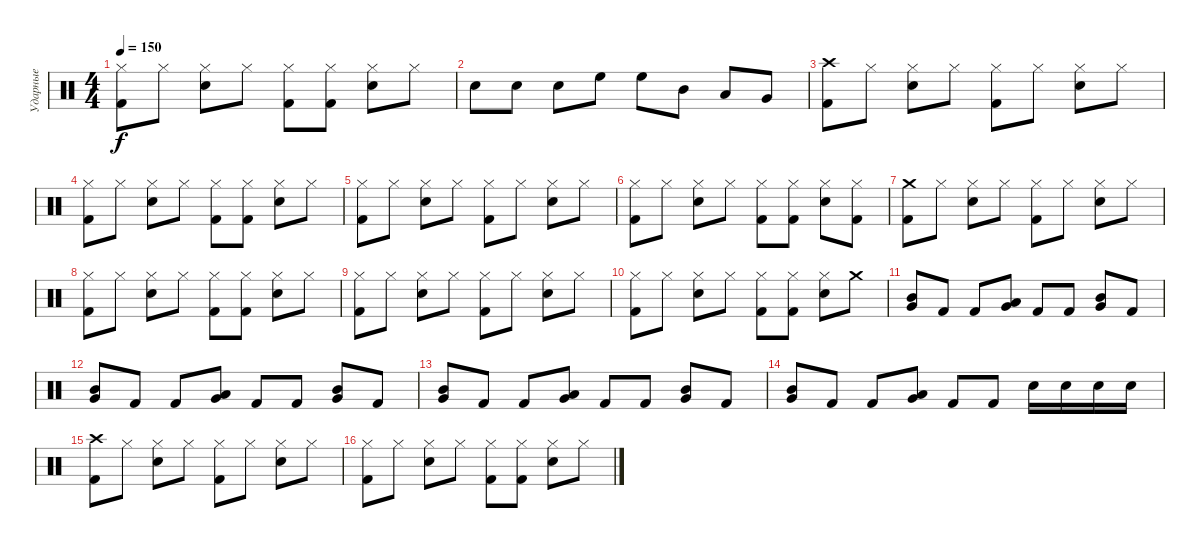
\track ("Ударные" "Ударные") {instrument percussion}
\staff {score}
\articulation defaults
\ts (4 4)
\tempo 150
\clef neutral
\ks c
("Hi-Hat (closed)" "Kick (hit) 2").8{dy f} "Hi-Hat (closed)".8 ("Hi-Hat (closed)" "Snare (hit) 2").8 "Hi-Hat (closed)".8 ("Hi-Hat (closed)" "Kick (hit) 2").8 ("Hi-Hat (closed)" "Kick (hit) 2").8 ("Hi-Hat (closed)" "Snare (hit) 2").8 "Hi-Hat (closed)".8 |
"Snare (hit) 2".8 "Snare (hit) 2".8 "Snare (hit) 2".8 "High Floor Tom (hit)".8 "High Floor Tom (hit)".8 "Mid Tom (hit)".8 "Low Tom (hit)".8 "Very Low Tom (hit)".8 |
("Crash high (hit)" "Kick (hit) 2").8 "Hi-Hat (closed)".8 ("Hi-Hat (closed)" "Snare (hit) 2").8 "Hi-Hat (closed)".8 ("Hi-Hat (closed)" "Kick (hit) 2").8 "Hi-Hat (closed)".8 ("Hi-Hat (closed)" "Snare (hit) 2").8 "Hi-Hat (closed)".8 |
("Hi-Hat (closed)" "Kick (hit) 2").8 "Hi-Hat (closed)".8 ("Hi-Hat (closed)" "Snare (hit) 2").8 "Hi-Hat (closed)".8 ("Hi-Hat (closed)" "Kick (hit) 2").8 ("Hi-Hat (closed)" "Kick (hit) 2").8 ("Hi-Hat (closed)" "Snare (hit) 2").8 "Hi-Hat (closed)".8 |
("Hi-Hat (closed)" "Kick (hit) 2").8 "Hi-Hat (closed)".8 ("Hi-Hat (closed)" "Snare (hit) 2").8 "Hi-Hat (closed)".8 ("Hi-Hat (closed)" "Kick (hit) 2").8 "Hi-Hat (closed)".8 ("Hi-Hat (closed)" "Snare (hit) 2").8 "Hi-Hat (closed)".8 |
("Hi-Hat (closed)" "Kick (hit) 2").8 "Hi-Hat (closed)".8 ("Hi-Hat (closed)" "Snare (hit) 2").8 "Hi-Hat (closed)".8 ("Hi-Hat (closed)" "Kick (hit) 2").8 ("Hi-Hat (closed)" "Kick (hit) 2").8 ("Hi-Hat (closed)" "Snare (hit) 2").8 ("Hi-Hat (closed)" "Kick (hit) 2").8 |
("Crash medium (hit)" "Kick (hit) 2").8 "Hi-Hat (closed)".8 ("Hi-Hat (closed)" "Snare (hit) 2").8 "Hi-Hat (closed)".8 ("Hi-Hat (closed)" "Kick (hit) 2").8 "Hi-Hat (closed)".8 ("Hi-Hat (closed)" "Snare (hit) 2").8 "Hi-Hat (closed)".8 |
("Hi-Hat (closed)" "Kick (hit) 2").8 "Hi-Hat (closed)".8 ("Hi-Hat (closed)" "Snare (hit) 2").8 "Hi-Hat (closed)".8 ("Hi-Hat (closed)" "Kick (hit) 2").8 ("Hi-Hat (closed)" "Kick (hit) 2").8 ("Hi-Hat (closed)" "Snare (hit) 2").8 "Hi-Hat (closed)".8 |
("Hi-Hat (closed)" "Kick (hit) 2").8 "Hi-Hat (closed)".8 ("Hi-Hat (closed)" "Snare (hit) 2").8 "Hi-Hat (closed)".8 ("Hi-Hat (closed)" "Kick (hit) 2").8 "Hi-Hat (closed)".8 ("Hi-Hat (closed)" "Snare (hit) 2").8 "Hi-Hat (closed)".8 |
("Hi-Hat (closed)" "Kick (hit) 2").8 "Hi-Hat (closed)".8 ("Hi-Hat (closed)" "Snare (hit) 2").8 "Hi-Hat (closed)".8 ("Hi-Hat (closed)" "Kick (hit) 2").8 ("Hi-Hat (closed)" "Kick (hit) 2").8 ("Hi-Hat (closed)" "Snare (hit) 2").8 "Crash medium (hit)".8 |
("Very Low Tom (hit)" "Mid Tom (hit)").8 "Kick (hit) 2".8 "Kick (hit) 2".8 ("Very Low Tom (hit)" "Low Tom (hit)").8 "Kick (hit) 2".8 "Kick (hit) 2".8 ("Very Low Tom (hit)" "Mid Tom (hit)").8 "Kick (hit) 2".8 |
("Very Low Tom (hit)" "Mid Tom (hit)").8 "Kick (hit) 2".8 "Kick (hit) 2".8 ("Very Low Tom (hit)" "Low Tom (hit)").8 "Kick (hit) 2".8 "Kick (hit) 2".8 ("Very Low Tom (hit)" "Mid Tom (hit)").8 "Kick (hit) 2".8 |
("Very Low Tom (hit)" "Mid Tom (hit)").8 "Kick (hit) 2".8 "Kick (hit) 2".8 ("Very Low Tom (hit)" "Low Tom (hit)").8 "Kick (hit) 2".8 "Kick (hit) 2".8 ("Very Low Tom (hit)" "Mid Tom (hit)").8 "Kick (hit) 2".8 |
("Very Low Tom (hit)" "Mid Tom (hit)").8 "Kick (hit) 2".8 "Kick (hit) 2".8 ("Very Low Tom (hit)" "Low Tom (hit)").8 "Kick (hit) 2".8 "Kick (hit) 2".8 "Snare (hit) 2".16 "Snare (hit) 2".16 "Snare (hit) 2".16 "Snare (hit) 2".16 |
("Crash high (hit)" "Kick (hit) 2").8 "Hi-Hat (closed)".8 ("Hi-Hat (closed)" "Snare (hit) 2").8 "Hi-Hat (closed)".8 ("Hi-Hat (closed)" "Kick (hit) 2").8 "Hi-Hat (closed)".8 ("Hi-Hat (closed)" "Snare (hit) 2").8 "Hi-Hat (closed)".8 |
("Hi-Hat (closed)" "Kick (hit) 2").8 "Hi-Hat (closed)".8 ("Hi-Hat (closed)" "Snare (hit) 2").8 "Hi-Hat (closed)".8 ("Hi-Hat (closed)" "Kick (hit) 2").8 ("Hi-Hat (closed)" "Kick (hit) 2").8 ("Hi-Hat (closed)" "Snare (hit) 2").8 "Hi-Hat (closed)".8
